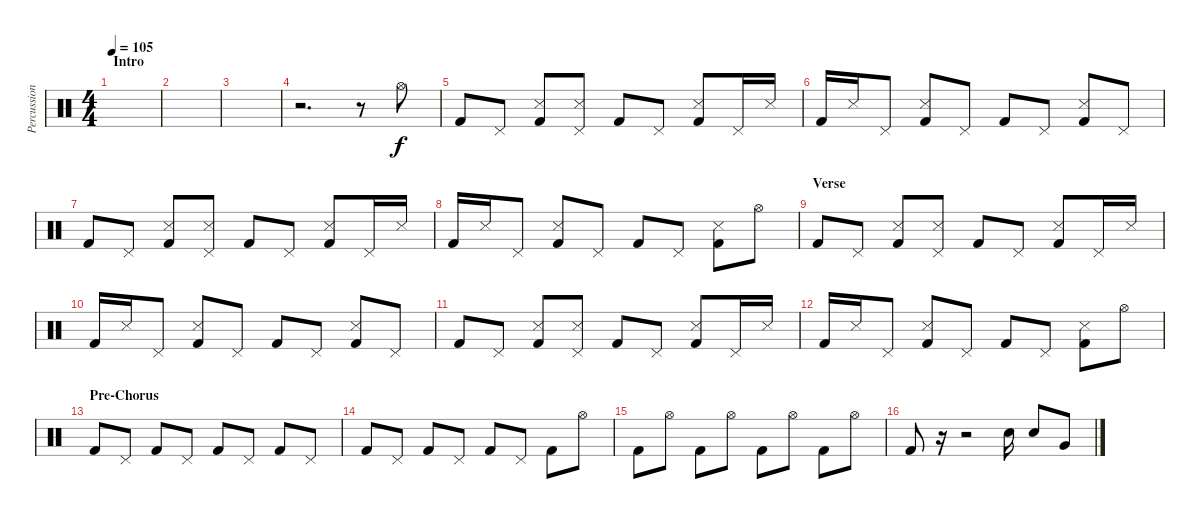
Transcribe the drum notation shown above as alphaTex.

\track ("Percussion" "Percussion") {instrument percussion}
\staff {score}
\articulation defaults
\ts (4 4)
\section ("" "Intro")
\tempo 105
\clef neutral
\ks c
|
|
|
r.2{d} r.8 "Hi-Hat (open)".8 |
"Kick (hit) 2".8 "Pedal Hi-Hat (hit)".8 ("Snare (side stick) 3" "Kick (hit) 2").8 ("Pedal Hi-Hat (hit)" "Snare (side stick) 3").8 "Kick (hit) 2".8 "Pedal Hi-Hat (hit)".8 ("Snare (side stick) 3" "Kick (hit) 2").8 "Pedal Hi-Hat (hit)".16 "Snare (side stick) 3".16 |
"Kick (hit) 2".16 "Snare (side stick) 3".16 "Pedal Hi-Hat (hit)".8 ("Snare (side stick) 3" "Kick (hit) 2").8 "Pedal Hi-Hat (hit)".8 "Kick (hit) 2".8 "Pedal Hi-Hat (hit)".8 ("Snare (side stick) 3" "Kick (hit) 2").8 "Pedal Hi-Hat (hit)".8 |
"Kick (hit) 2".8 "Pedal Hi-Hat (hit)".8 ("Snare (side stick) 3" "Kick (hit) 2").8 ("Pedal Hi-Hat (hit)" "Snare (side stick) 3").8 "Kick (hit) 2".8 "Pedal Hi-Hat (hit)".8 ("Snare (side stick) 3" "Kick (hit) 2").8 "Pedal Hi-Hat (hit)".16 "Snare (side stick) 3".16 |
"Kick (hit) 2".16 "Snare (side stick) 3".16 "Pedal Hi-Hat (hit)".8 ("Snare (side stick) 3" "Kick (hit) 2").8 "Pedal Hi-Hat (hit)".8 "Kick (hit) 2".8 "Pedal Hi-Hat (hit)".8 ("Snare (side stick) 3" "Kick (hit) 2").8 "Hi-Hat (open)".8 |
\section ("" "Verse")
"Kick (hit) 2".8 "Pedal Hi-Hat (hit)".8 ("Snare (side stick) 3" "Kick (hit) 2").8 ("Pedal Hi-Hat (hit)" "Snare (side stick) 3").8 "Kick (hit) 2".8 "Pedal Hi-Hat (hit)".8 ("Snare (side stick) 3" "Kick (hit) 2").8 "Pedal Hi-Hat (hit)".16 "Snare (side stick) 3".16 |
"Kick (hit) 2".16 "Snare (side stick) 3".16 "Pedal Hi-Hat (hit)".8 ("Snare (side stick) 3" "Kick (hit) 2").8 "Pedal Hi-Hat (hit)".8 "Kick (hit) 2".8 "Pedal Hi-Hat (hit)".8 ("Snare (side stick) 3" "Kick (hit) 2").8 "Pedal Hi-Hat (hit)".8 |
"Kick (hit) 2".8 "Pedal Hi-Hat (hit)".8 ("Snare (side stick) 3" "Kick (hit) 2").8 ("Pedal Hi-Hat (hit)" "Snare (side stick) 3").8 "Kick (hit) 2".8 "Pedal Hi-Hat (hit)".8 ("Snare (side stick) 3" "Kick (hit) 2").8 "Pedal Hi-Hat (hit)".16 "Snare (side stick) 3".16 |
"Kick (hit) 2".16 "Snare (side stick) 3".16 "Pedal Hi-Hat (hit)".8 ("Snare (side stick) 3" "Kick (hit) 2").8 "Pedal Hi-Hat (hit)".8 "Kick (hit) 2".8 "Pedal Hi-Hat (hit)".8 ("Snare (side stick) 3" "Kick (hit) 2").8 "Hi-Hat (open)".8 |
\section ("" "Pre-Chorus")
"Kick (hit) 2".8 "Pedal Hi-Hat (hit)".8 "Kick (hit) 2".8 "Pedal Hi-Hat (hit)".8 "Kick (hit) 2".8 "Pedal Hi-Hat (hit)".8 "Kick (hit) 2".8 "Pedal Hi-Hat (hit)".8 |
"Kick (hit) 2".8 "Pedal Hi-Hat (hit)".8 "Kick (hit) 2".8 "Pedal Hi-Hat (hit)".8 "Kick (hit) 2".8 "Pedal Hi-Hat (hit)".8 "Kick (hit) 2".8 "Hi-Hat (open)".8 |
"Kick (hit) 2".8 "Hi-Hat (open)".8 "Kick (hit) 2".8 "Hi-Hat (open)".8 "Kick (hit) 2".8 "Hi-Hat (open)".8 "Kick (hit) 2".8 "Hi-Hat (open)".8 |
"Kick (hit) 2".8 r.16 r.2 "Electric Snare (hit)".16 "Electric Snare (hit)".8 "Very Low Tom (hit)".8
